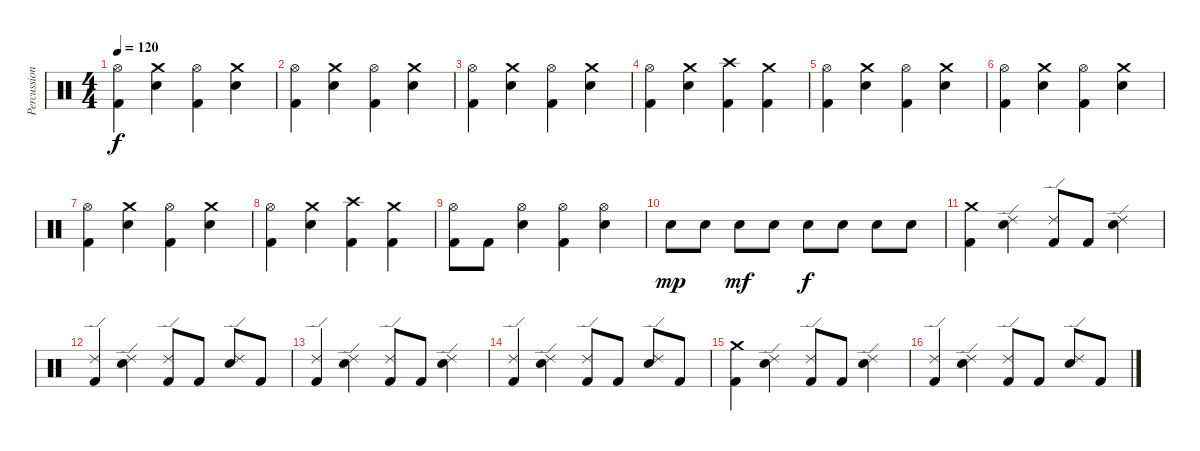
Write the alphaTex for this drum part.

\track ("Percussion" "Percussion") {instrument percussion}
\staff {score}
\articulation defaults
\ts (4 4)
\tempo 120
\clef neutral
\ks c
("Hi-Hat (open)" "Kick (hit) 2").4{dy f} ("Crash medium (hit)" "Snare (hit) 2").4 ("Hi-Hat (open)" "Kick (hit) 2").4 ("Crash medium (hit)" "Snare (hit) 2").4 |
("Hi-Hat (open)" "Kick (hit) 2").4 ("Crash medium (hit)" "Snare (hit) 2").4 ("Hi-Hat (open)" "Kick (hit) 2").4 ("Crash medium (hit)" "Snare (hit) 2").4 |
("Hi-Hat (open)" "Kick (hit) 2").4 ("Crash medium (hit)" "Snare (hit) 2").4 ("Hi-Hat (open)" "Kick (hit) 2").4 ("Crash medium (hit)" "Snare (hit) 2").4 |
("Hi-Hat (open)" "Kick (hit) 2").4 ("Crash medium (hit)" "Snare (hit) 2").4 ("Crash high (hit)" "Kick (hit) 2").4 ("Crash medium (hit)" "Kick (hit) 2").4 |
("Hi-Hat (open)" "Kick (hit) 2").4 ("Crash medium (hit)" "Snare (hit) 2").4 ("Hi-Hat (open)" "Kick (hit) 2").4 ("Crash medium (hit)" "Snare (hit) 2").4 |
("Hi-Hat (open)" "Kick (hit) 2").4 ("Crash medium (hit)" "Snare (hit) 2").4 ("Hi-Hat (open)" "Kick (hit) 2").4 ("Crash medium (hit)" "Snare (hit) 2").4 |
("Hi-Hat (open)" "Kick (hit) 2").4 ("Crash medium (hit)" "Snare (hit) 2").4 ("Hi-Hat (open)" "Kick (hit) 2").4 ("Crash medium (hit)" "Snare (hit) 2").4 |
("Hi-Hat (open)" "Kick (hit) 2").4 ("Crash medium (hit)" "Snare (hit) 2").4 ("Crash high (hit)" "Kick (hit) 2").4 ("Crash medium (hit)" "Kick (hit) 2").4 |
("Hi-Hat (open)" "Kick (hit) 2").8 "Kick (hit) 2".8 ("Hi-Hat (open)" "Snare (hit) 2").4 ("Hi-Hat (open)" "Kick (hit) 2").4 ("Hi-Hat (open)" "Snare (hit) 2").4 |
"Snare (hit) 2".8{dy mp} "Snare (hit) 2".8 "Snare (hit) 2".8{dy mf} "Snare (hit) 2".8 "Snare (hit) 2".8{dy f} "Snare (hit) 2".8 "Snare (hit) 2".8 "Snare (hit) 2".8 |
("Crash medium (hit)" "Kick (hit) 2").4 ("Ride (edge) 2" "Snare (hit) 2").4 ("Ride (edge) 2" "Kick (hit) 2").8 "Kick (hit) 2".8 ("Ride (edge) 2" "Snare (hit) 2").4 |
("Ride (edge) 2" "Kick (hit) 2").4 ("Ride (edge) 2" "Snare (hit) 2").4 ("Ride (edge) 2" "Kick (hit) 2").8 "Kick (hit) 2".8 ("Ride (edge) 2" "Snare (hit) 2").8 "Kick (hit) 2".8 |
("Ride (edge) 2" "Kick (hit) 2").4 ("Ride (edge) 2" "Snare (hit) 2").4 ("Ride (edge) 2" "Kick (hit) 2").8 "Kick (hit) 2".8 ("Ride (edge) 2" "Snare (hit) 2").4 |
("Ride (edge) 2" "Kick (hit) 2").4 ("Ride (edge) 2" "Snare (hit) 2").4 ("Ride (edge) 2" "Kick (hit) 2").8 "Kick (hit) 2".8 ("Ride (edge) 2" "Snare (hit) 2").8 "Kick (hit) 2".8 |
("Crash medium (hit)" "Kick (hit) 2").4 ("Ride (edge) 2" "Snare (hit) 2").4 ("Ride (edge) 2" "Kick (hit) 2").8 "Kick (hit) 2".8 ("Ride (edge) 2" "Snare (hit) 2").4 |
("Ride (edge) 2" "Kick (hit) 2").4 ("Ride (edge) 2" "Snare (hit) 2").4 ("Ride (edge) 2" "Kick (hit) 2").8 "Kick (hit) 2".8 ("Ride (edge) 2" "Snare (hit) 2").8 "Kick (hit) 2".8
